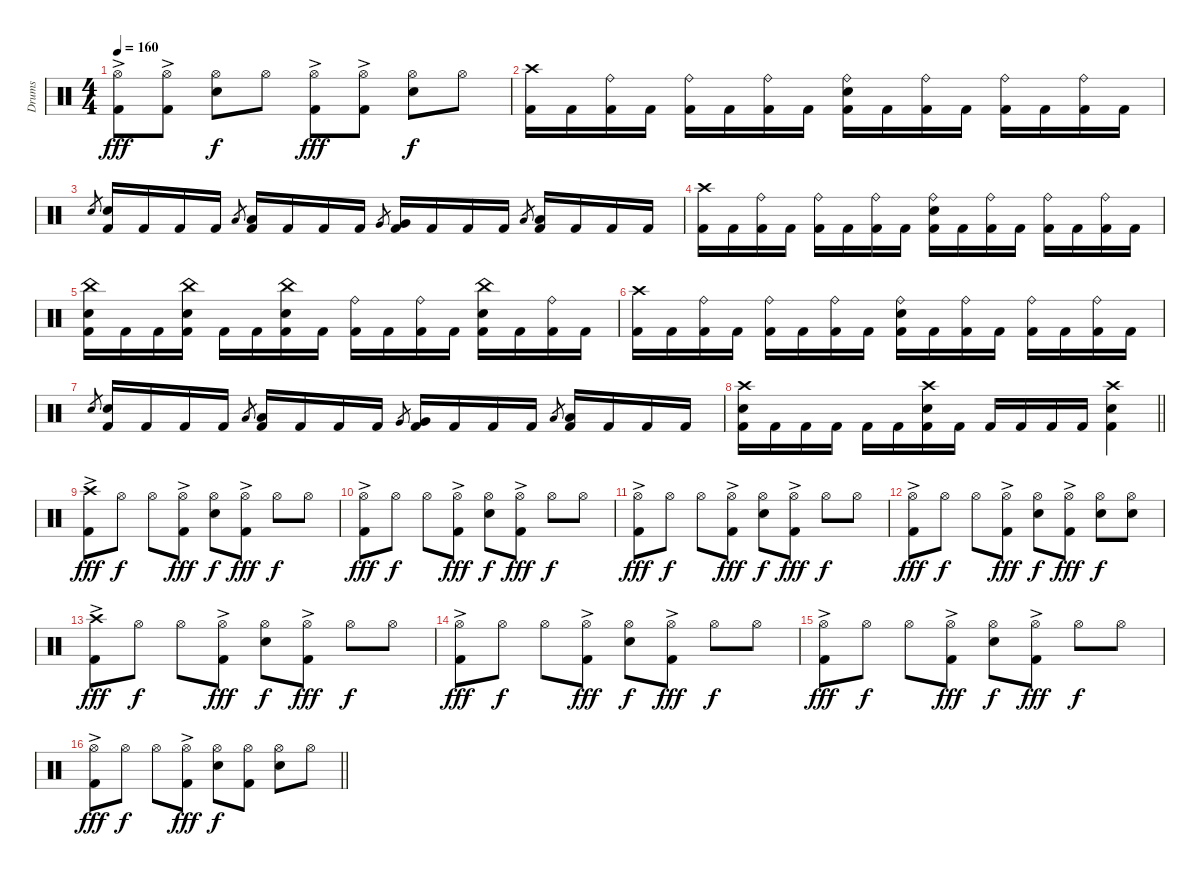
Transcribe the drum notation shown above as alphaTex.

\track ("Drums" "Drums") {instrument percussion}
\staff {score}
\articulation defaults
\ts (4 4)
\tempo 160
\clef neutral
\ks c
("Hi-Hat (open)" "Kick (hit) 2"{ac}).8{dy fff} ("Hi-Hat (open)" "Kick (hit) 2"{ac}).8 ("Hi-Hat (open)" "Snare (hit) 2").8{dy f} "Hi-Hat (open)".8 ("Hi-Hat (open)" "Kick (hit) 2"{ac}).8{dy fff} ("Hi-Hat (open)" "Kick (hit) 2"{ac}).8 ("Hi-Hat (open)" "Snare (hit) 2").8{dy f} "Hi-Hat (open)".8 |
("Crash high (hit)" "Kick (hit) 2").16 "Kick (hit) 2".16 ("Ride (bell)" "Kick (hit) 2").16 "Kick (hit) 2".16 ("Ride (bell)" "Kick (hit) 2").16 "Kick (hit) 2".16 ("Ride (bell)" "Kick (hit) 2").16 "Kick (hit) 2".16 ("Ride (bell)" "Snare (hit) 2" "Kick (hit) 2").16 "Kick (hit) 2".16 ("Ride (bell)" "Kick (hit) 2").16 "Kick (hit) 2".16 ("Ride (bell)" "Kick (hit) 2").16 "Kick (hit) 2".16 ("Ride (bell)" "Kick (hit) 2").16 "Kick (hit) 2".16 |
"Snare (hit) 2".8{gr} ("Snare (hit) 2" "Kick (hit) 2").16 "Kick (hit) 2".16 "Kick (hit) 2".16 "Kick (hit) 2".16 "Low Tom (hit)".8{gr} ("Low Tom (hit)" "Kick (hit) 2").16 "Kick (hit) 2".16 "Kick (hit) 2".16 "Kick (hit) 2".16 "Very Low Tom (hit)".8{gr} ("Very Low Tom (hit)" "Kick (hit) 2").16 "Kick (hit) 2".16 "Kick (hit) 2".16 "Kick (hit) 2".16 "Low Floor Tom (hit)".8{gr} ("Low Floor Tom (hit)" "Kick (hit) 2").16 "Kick (hit) 2".16 "Kick (hit) 2".16 "Kick (hit) 2".16 |
("Crash high (hit)" "Kick (hit) 2").16 "Kick (hit) 2".16 ("Ride (bell)" "Kick (hit) 2").16 "Kick (hit) 2".16 ("Ride (bell)" "Kick (hit) 2").16 "Kick (hit) 2".16 ("Ride (bell)" "Kick (hit) 2").16 "Kick (hit) 2".16 ("Ride (bell)" "Snare (hit) 2" "Kick (hit) 2").16 "Kick (hit) 2".16 ("Ride (bell)" "Kick (hit) 2").16 "Kick (hit) 2".16 ("Ride (bell)" "Kick (hit) 2").16 "Kick (hit) 2".16 ("Ride (bell)" "Kick (hit) 2").16 "Kick (hit) 2".16 |
("China (hit)" "Snare (hit) 2" "Kick (hit) 2").16 "Kick (hit) 2".16 "Kick (hit) 2".16 ("China (hit)" "Snare (hit) 2" "Kick (hit) 2").16 "Kick (hit) 2".16 "Kick (hit) 2".16 ("China (hit)" "Snare (hit) 2" "Kick (hit) 2").16 "Kick (hit) 2".16 ("Ride (bell)" "Kick (hit) 2").16 "Kick (hit) 2".16 ("Ride (bell)" "Kick (hit) 2").16 "Kick (hit) 2".16 ("China (hit)" "Snare (hit) 2" "Kick (hit) 2").16 "Kick (hit) 2".16 ("Ride (bell)" "Kick (hit) 2").16 "Kick (hit) 2".16 |
("Crash high (hit)" "Kick (hit) 2").16 "Kick (hit) 2".16 ("Ride (bell)" "Kick (hit) 2").16 "Kick (hit) 2".16 ("Ride (bell)" "Kick (hit) 2").16 "Kick (hit) 2".16 ("Ride (bell)" "Kick (hit) 2").16 "Kick (hit) 2".16 ("Ride (bell)" "Snare (hit) 2" "Kick (hit) 2").16 "Kick (hit) 2".16 ("Ride (bell)" "Kick (hit) 2").16 "Kick (hit) 2".16 ("Ride (bell)" "Kick (hit) 2").16 "Kick (hit) 2".16 ("Ride (bell)" "Kick (hit) 2").16 "Kick (hit) 2".16 |
"Snare (hit) 2".8{gr} ("Snare (hit) 2" "Kick (hit) 2").16 "Kick (hit) 2".16 "Kick (hit) 2".16 "Kick (hit) 2".16 "Low Tom (hit)".8{gr} ("Low Tom (hit)" "Kick (hit) 2").16 "Kick (hit) 2".16 "Kick (hit) 2".16 "Kick (hit) 2".16 "Very Low Tom (hit)".8{gr} ("Very Low Tom (hit)" "Kick (hit) 2").16 "Kick (hit) 2".16 "Kick (hit) 2".16 "Kick (hit) 2".16 "Low Floor Tom (hit)".8{gr} ("Low Floor Tom (hit)" "Kick (hit) 2").16 "Kick (hit) 2".16 "Kick (hit) 2".16 "Kick (hit) 2".16 |
\barLineRight lightlight
("Crash high (hit)" "Snare (hit) 2" "Kick (hit) 2").16 "Kick (hit) 2".16 "Kick (hit) 2".16 "Kick (hit) 2".16 "Kick (hit) 2".16 "Kick (hit) 2".16 ("Crash high (hit)" "Snare (hit) 2" "Kick (hit) 2").16 "Kick (hit) 2".16 "Kick (hit) 2".16 "Kick (hit) 2".16 "Kick (hit) 2".16 "Kick (hit) 2".16 ("Crash high (hit)" "Snare (hit) 2" "Kick (hit) 2").4 |
("Crash high (hit)" "Kick (hit) 2"{ac}).8{dy fff} "Hi-Hat (open)".8{dy f} "Hi-Hat (open)".8 ("Hi-Hat (open)" "Kick (hit) 2"{ac}).8{dy fff} ("Hi-Hat (open)" "Snare (hit) 2").8{dy f} ("Hi-Hat (open)" "Kick (hit) 2"{ac}).8{dy fff} "Hi-Hat (open)".8{dy f} "Hi-Hat (open)".8 |
("Hi-Hat (open)" "Kick (hit) 2"{ac}).8{dy fff} "Hi-Hat (open)".8{dy f} "Hi-Hat (open)".8 ("Hi-Hat (open)" "Kick (hit) 2"{ac}).8{dy fff} ("Hi-Hat (open)" "Snare (hit) 2").8{dy f} ("Hi-Hat (open)" "Kick (hit) 2"{ac}).8{dy fff} "Hi-Hat (open)".8{dy f} "Hi-Hat (open)".8 |
("Hi-Hat (open)" "Kick (hit) 2"{ac}).8{dy fff} "Hi-Hat (open)".8{dy f} "Hi-Hat (open)".8 ("Hi-Hat (open)" "Kick (hit) 2"{ac}).8{dy fff} ("Hi-Hat (open)" "Snare (hit) 2").8{dy f} ("Hi-Hat (open)" "Kick (hit) 2"{ac}).8{dy fff} "Hi-Hat (open)".8{dy f} "Hi-Hat (open)".8 |
("Hi-Hat (open)" "Kick (hit) 2"{ac}).8{dy fff} "Hi-Hat (open)".8{dy f} "Hi-Hat (open)".8 ("Hi-Hat (open)" "Kick (hit) 2"{ac}).8{dy fff} ("Hi-Hat (open)" "Snare (hit) 2").8{dy f} ("Hi-Hat (open)" "Kick (hit) 2"{ac}).8{dy fff} ("Hi-Hat (open)" "Snare (hit) 2").8{dy f} ("Hi-Hat (open)" "Snare (hit) 2").8 |
("Crash high (hit)" "Kick (hit) 2"{ac}).8{dy fff} "Hi-Hat (open)".8{dy f} "Hi-Hat (open)".8 ("Hi-Hat (open)" "Kick (hit) 2"{ac}).8{dy fff} ("Hi-Hat (open)" "Snare (hit) 2").8{dy f} ("Hi-Hat (open)" "Kick (hit) 2"{ac}).8{dy fff} "Hi-Hat (open)".8{dy f} "Hi-Hat (open)".8 |
("Hi-Hat (open)" "Kick (hit) 2"{ac}).8{dy fff} "Hi-Hat (open)".8{dy f} "Hi-Hat (open)".8 ("Hi-Hat (open)" "Kick (hit) 2"{ac}).8{dy fff} ("Hi-Hat (open)" "Snare (hit) 2").8{dy f} ("Hi-Hat (open)" "Kick (hit) 2"{ac}).8{dy fff} "Hi-Hat (open)".8{dy f} "Hi-Hat (open)".8 |
("Hi-Hat (open)" "Kick (hit) 2"{ac}).8{dy fff} "Hi-Hat (open)".8{dy f} "Hi-Hat (open)".8 ("Hi-Hat (open)" "Kick (hit) 2"{ac}).8{dy fff} ("Hi-Hat (open)" "Snare (hit) 2").8{dy f} ("Hi-Hat (open)" "Kick (hit) 2"{ac}).8{dy fff} "Hi-Hat (open)".8{dy f} "Hi-Hat (open)".8 |
\barLineRight lightlight
("Hi-Hat (open)" "Kick (hit) 2"{ac}).8{dy fff} "Hi-Hat (open)".8{dy f} "Hi-Hat (open)".8 ("Hi-Hat (open)" "Kick (hit) 2"{ac}).8{dy fff} ("Hi-Hat (open)" "Snare (hit) 2").8{dy f} ("Hi-Hat (open)" "Kick (hit) 2").8 ("Hi-Hat (open)" "Snare (hit) 2").8 "Hi-Hat (open)".8
